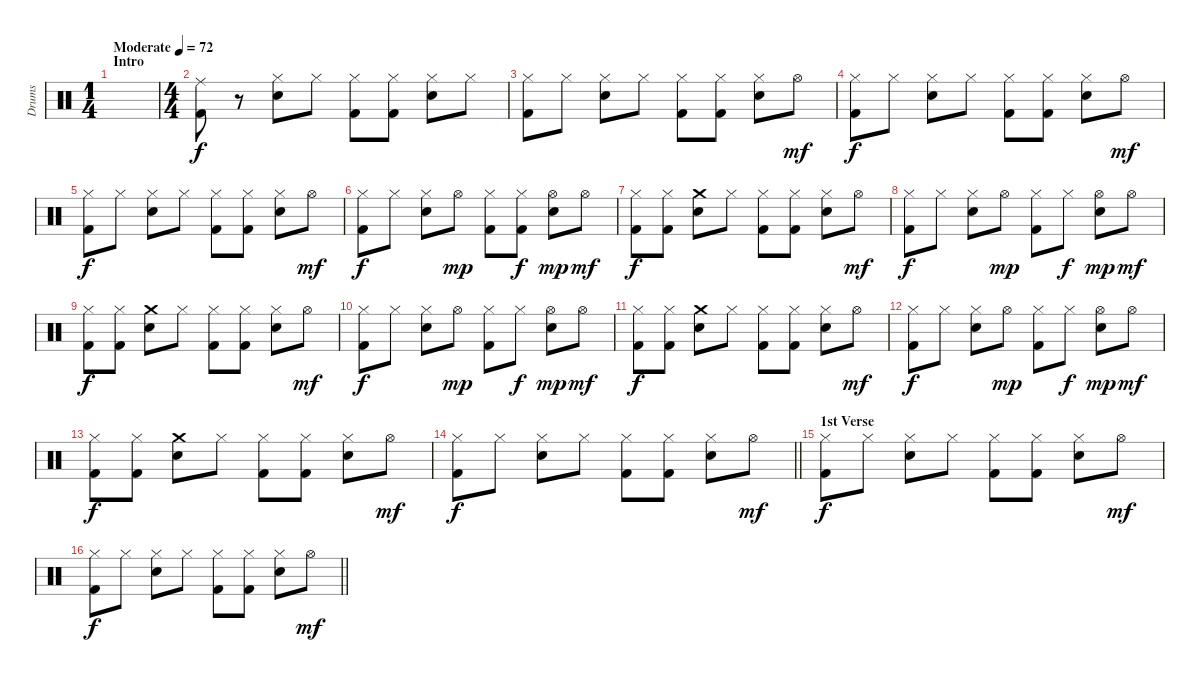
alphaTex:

\track ("Drums" "Drums") {instrument percussion}
\staff {score}
\articulation defaults
\ts (1 4)
\section ("" "Intro")
\tempo (72 "Moderate")
\clef neutral
\ks c
|
\ts (4 4)
("Ride (middle)" "Kick (hit) 2").8 r.8 ("Hi-Hat (closed)" "Electric Snare (hit)").8 "Hi-Hat (closed)".8 ("Hi-Hat (closed)" "Kick (hit) 2").8 ("Hi-Hat (closed)" "Kick (hit) 2").8 ("Hi-Hat (closed)" "Electric Snare (hit)").8 "Hi-Hat (closed)".8 |
("Hi-Hat (closed)" "Kick (hit) 2").8 "Hi-Hat (closed)".8 ("Hi-Hat (closed)" "Electric Snare (hit)").8 "Hi-Hat (closed)".8 ("Hi-Hat (closed)" "Kick (hit) 2").8 ("Hi-Hat (closed)" "Kick (hit) 2").8 ("Hi-Hat (closed)" "Electric Snare (hit)").8 "Hi-Hat (open)".8{dy mf} |
("Hi-Hat (closed)" "Kick (hit) 2").8{dy f} "Hi-Hat (closed)".8 ("Hi-Hat (closed)" "Electric Snare (hit)").8 "Hi-Hat (closed)".8 ("Hi-Hat (closed)" "Kick (hit) 2").8 ("Hi-Hat (closed)" "Kick (hit) 2").8 ("Hi-Hat (closed)" "Electric Snare (hit)").8 "Hi-Hat (open)".8{dy mf} |
("Hi-Hat (closed)" "Kick (hit) 2").8{dy f} "Hi-Hat (closed)".8 ("Hi-Hat (closed)" "Electric Snare (hit)").8 "Hi-Hat (closed)".8 ("Hi-Hat (closed)" "Kick (hit) 2").8 ("Hi-Hat (closed)" "Kick (hit) 2").8 ("Hi-Hat (closed)" "Electric Snare (hit)").8 "Hi-Hat (open)".8{dy mf} |
("Hi-Hat (closed)" "Kick (hit) 2").8{dy f} "Hi-Hat (closed)".8 ("Hi-Hat (closed)" "Electric Snare (hit)").8 "Hi-Hat (open)".8{dy mp} ("Hi-Hat (closed)" "Kick (hit) 2").8 ("Hi-Hat (closed)" "Kick (hit) 2").8{dy f} ("Hi-Hat (open)" "Electric Snare (hit)").8{dy mp} "Hi-Hat (open)".8{dy mf} |
("Hi-Hat (closed)" "Kick (hit) 2").8{dy f} ("Hi-Hat (closed)" "Kick (hit) 2").8 ("Crash medium (hit)" "Electric Snare (hit)").8 "Hi-Hat (closed)".8 ("Hi-Hat (closed)" "Kick (hit) 2").8 ("Hi-Hat (closed)" "Kick (hit) 2").8 ("Hi-Hat (closed)" "Electric Snare (hit)").8 "Hi-Hat (open)".8{dy mf} |
("Hi-Hat (closed)" "Kick (hit) 2").8{dy f} "Hi-Hat (closed)".8 ("Hi-Hat (closed)" "Electric Snare (hit)").8 "Hi-Hat (open)".8{dy mp} ("Hi-Hat (closed)" "Kick (hit) 2").8 "Hi-Hat (closed)".8{dy f} ("Hi-Hat (open)" "Electric Snare (hit)").8{dy mp} "Hi-Hat (open)".8{dy mf} |
("Hi-Hat (closed)" "Kick (hit) 2").8{dy f} ("Hi-Hat (closed)" "Kick (hit) 2").8 ("Crash medium (hit)" "Electric Snare (hit)").8 "Hi-Hat (closed)".8 ("Hi-Hat (closed)" "Kick (hit) 2").8 ("Hi-Hat (closed)" "Kick (hit) 2").8 ("Hi-Hat (closed)" "Electric Snare (hit)").8 "Hi-Hat (open)".8{dy mf} |
("Hi-Hat (closed)" "Kick (hit) 2").8{dy f} "Hi-Hat (closed)".8 ("Hi-Hat (closed)" "Electric Snare (hit)").8 "Hi-Hat (open)".8{dy mp} ("Hi-Hat (closed)" "Kick (hit) 2").8 "Hi-Hat (closed)".8{dy f} ("Hi-Hat (open)" "Electric Snare (hit)").8{dy mp} "Hi-Hat (open)".8{dy mf} |
("Hi-Hat (closed)" "Kick (hit) 2").8{dy f} ("Hi-Hat (closed)" "Kick (hit) 2").8 ("Crash medium (hit)" "Electric Snare (hit)").8 "Hi-Hat (closed)".8 ("Hi-Hat (closed)" "Kick (hit) 2").8 ("Hi-Hat (closed)" "Kick (hit) 2").8 ("Hi-Hat (closed)" "Electric Snare (hit)").8 "Hi-Hat (open)".8{dy mf} |
("Hi-Hat (closed)" "Kick (hit) 2").8{dy f} "Hi-Hat (closed)".8 ("Hi-Hat (closed)" "Electric Snare (hit)").8 "Hi-Hat (open)".8{dy mp} ("Hi-Hat (closed)" "Kick (hit) 2").8 "Hi-Hat (closed)".8{dy f} ("Hi-Hat (open)" "Electric Snare (hit)").8{dy mp} "Hi-Hat (open)".8{dy mf} |
("Hi-Hat (closed)" "Kick (hit) 2").8{dy f} ("Hi-Hat (closed)" "Kick (hit) 2").8 ("Crash medium (hit)" "Electric Snare (hit)").8 "Hi-Hat (closed)".8 ("Hi-Hat (closed)" "Kick (hit) 2").8 ("Hi-Hat (closed)" "Kick (hit) 2").8 ("Hi-Hat (closed)" "Electric Snare (hit)").8 "Hi-Hat (open)".8{dy mf} |
\barLineRight lightlight
("Hi-Hat (closed)" "Kick (hit) 2").8{dy f} "Hi-Hat (closed)".8 ("Hi-Hat (closed)" "Electric Snare (hit)").8 "Hi-Hat (closed)".8 ("Hi-Hat (closed)" "Kick (hit) 2").8 ("Hi-Hat (closed)" "Kick (hit) 2").8 ("Hi-Hat (closed)" "Electric Snare (hit)").8 "Hi-Hat (open)".8{dy mf} |
\section ("" "1st Verse")
("Hi-Hat (closed)" "Kick (hit) 2").8{dy f} "Hi-Hat (closed)".8 ("Hi-Hat (closed)" "Electric Snare (hit)").8 "Hi-Hat (closed)".8 ("Hi-Hat (closed)" "Kick (hit) 2").8 ("Hi-Hat (closed)" "Kick (hit) 2").8 ("Hi-Hat (closed)" "Electric Snare (hit)").8 "Hi-Hat (open)".8{dy mf} |
\barLineRight lightlight
("Hi-Hat (closed)" "Kick (hit) 2").8{dy f} "Hi-Hat (closed)".8 ("Hi-Hat (closed)" "Electric Snare (hit)").8 "Hi-Hat (closed)".8 ("Hi-Hat (closed)" "Kick (hit) 2").8 ("Hi-Hat (closed)" "Kick (hit) 2").8 ("Hi-Hat (closed)" "Electric Snare (hit)").8 "Hi-Hat (open)".8{dy mf}
